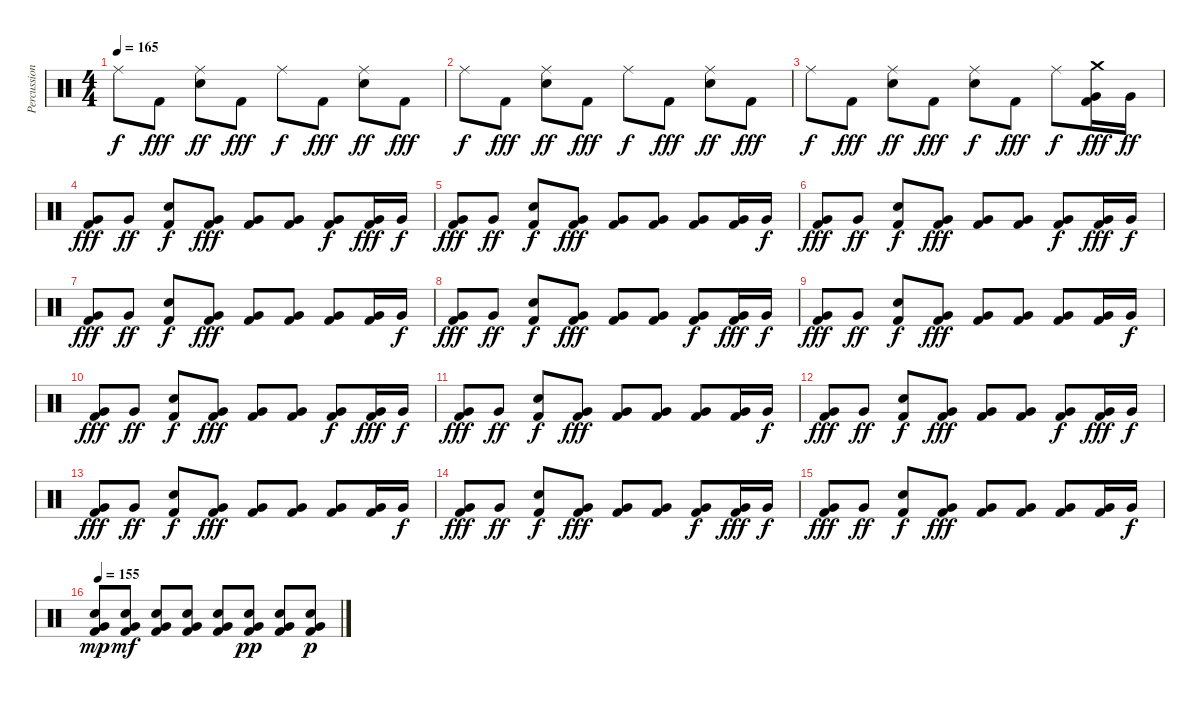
\track ("Percussion" "Percussion") {instrument percussion}
\staff {score}
\articulation defaults
\ts (4 4)
\tempo 165
\clef neutral
\ks c "Ride (middle)".8{dy f} "Kick (hit) 2".8{dy fff}
("Ride (middle)" "Electric Snare (hit)").8{dy ff} "Kick (hit) 2".8{dy fff} "Ride (middle)".8{dy f} "Kick (hit) 2".8{dy fff} ("Ride (middle)" "Electric Snare (hit)").8{dy ff} "Kick (hit) 2".8{dy fff} |
"Ride (middle)".8{dy f} "Kick (hit) 2".8{dy fff} ("Ride (middle)" "Electric Snare (hit)").8{dy ff} "Kick (hit) 2".8{dy fff} "Ride (middle)".8{dy f} "Kick (hit) 2".8{dy fff} ("Ride (middle)" "Electric Snare (hit)").8{dy ff} "Kick (hit) 2".8{dy fff} |
"Ride (middle)".8{dy f} "Kick (hit) 2".8{dy fff} ("Ride (middle)" "Electric Snare (hit)").8{dy ff} "Kick (hit) 2".8{dy fff} ("Ride (middle)" "Electric Snare (hit)").8{dy f} "Kick (hit) 2".8{dy fff} "Ride (middle)".8{dy f} ("Crash medium (hit)" "Very Low Tom (hit)" "Kick (hit) 2").16{dy fff} "Very Low Tom (hit)".16{dy ff} |
("Very Low Tom (hit)" "Kick (hit) 2").8{dy fff} "Very Low Tom (hit)".8{dy ff} ("Electric Snare (hit)" "Kick (hit) 2").8{dy f} ("Very Low Tom (hit)" "Kick (hit) 2").8{dy fff} ("Very Low Tom (hit)" "Kick (hit) 2").8 ("Very Low Tom (hit)" "Kick (hit) 2").8 ("Very Low Tom (hit)" "Kick (hit) 2").8{dy f} ("Very Low Tom (hit)" "Kick (hit) 2").16{dy fff} "Very Low Tom (hit)".16{dy f} |
("Very Low Tom (hit)" "Kick (hit) 2").8{dy fff} "Very Low Tom (hit)".8{dy ff} ("Electric Snare (hit)" "Kick (hit) 2").8{dy f} ("Very Low Tom (hit)" "Kick (hit) 2").8{dy fff} ("Very Low Tom (hit)" "Kick (hit) 2").8 ("Very Low Tom (hit)" "Kick (hit) 2").8 ("Very Low Tom (hit)" "Kick (hit) 2").8 ("Very Low Tom (hit)" "Kick (hit) 2").16 "Very Low Tom (hit)".16{dy f} |
("Very Low Tom (hit)" "Kick (hit) 2").8{dy fff} "Very Low Tom (hit)".8{dy ff} ("Electric Snare (hit)" "Kick (hit) 2").8{dy f} ("Very Low Tom (hit)" "Kick (hit) 2").8{dy fff} ("Very Low Tom (hit)" "Kick (hit) 2").8 ("Very Low Tom (hit)" "Kick (hit) 2").8 ("Very Low Tom (hit)" "Kick (hit) 2").8{dy f} ("Very Low Tom (hit)" "Kick (hit) 2").16{dy fff} "Very Low Tom (hit)".16{dy f} |
("Very Low Tom (hit)" "Kick (hit) 2").8{dy fff} "Very Low Tom (hit)".8{dy ff} ("Electric Snare (hit)" "Kick (hit) 2").8{dy f} ("Very Low Tom (hit)" "Kick (hit) 2").8{dy fff} ("Very Low Tom (hit)" "Kick (hit) 2").8 ("Very Low Tom (hit)" "Kick (hit) 2").8 ("Very Low Tom (hit)" "Kick (hit) 2").8 ("Very Low Tom (hit)" "Kick (hit) 2").16 "Very Low Tom (hit)".16{dy f} |
("Very Low Tom (hit)" "Kick (hit) 2").8{dy fff} "Very Low Tom (hit)".8{dy ff} ("Electric Snare (hit)" "Kick (hit) 2").8{dy f} ("Very Low Tom (hit)" "Kick (hit) 2").8{dy fff} ("Very Low Tom (hit)" "Kick (hit) 2").8 ("Very Low Tom (hit)" "Kick (hit) 2").8 ("Very Low Tom (hit)" "Kick (hit) 2").8{dy f} ("Very Low Tom (hit)" "Kick (hit) 2").16{dy fff} "Very Low Tom (hit)".16{dy f} |
("Very Low Tom (hit)" "Kick (hit) 2").8{dy fff} "Very Low Tom (hit)".8{dy ff} ("Electric Snare (hit)" "Kick (hit) 2").8{dy f} ("Very Low Tom (hit)" "Kick (hit) 2").8{dy fff} ("Very Low Tom (hit)" "Kick (hit) 2").8 ("Very Low Tom (hit)" "Kick (hit) 2").8 ("Very Low Tom (hit)" "Kick (hit) 2").8 ("Very Low Tom (hit)" "Kick (hit) 2").16 "Very Low Tom (hit)".16{dy f} |
("Very Low Tom (hit)" "Kick (hit) 2").8{dy fff} "Very Low Tom (hit)".8{dy ff} ("Electric Snare (hit)" "Kick (hit) 2").8{dy f} ("Very Low Tom (hit)" "Kick (hit) 2").8{dy fff} ("Very Low Tom (hit)" "Kick (hit) 2").8 ("Very Low Tom (hit)" "Kick (hit) 2").8 ("Very Low Tom (hit)" "Kick (hit) 2").8{dy f} ("Very Low Tom (hit)" "Kick (hit) 2").16{dy fff} "Very Low Tom (hit)".16{dy f} |
("Very Low Tom (hit)" "Kick (hit) 2").8{dy fff} "Very Low Tom (hit)".8{dy ff} ("Electric Snare (hit)" "Kick (hit) 2").8{dy f} ("Very Low Tom (hit)" "Kick (hit) 2").8{dy fff} ("Very Low Tom (hit)" "Kick (hit) 2").8 ("Very Low Tom (hit)" "Kick (hit) 2").8 ("Very Low Tom (hit)" "Kick (hit) 2").8 ("Very Low Tom (hit)" "Kick (hit) 2").16 "Very Low Tom (hit)".16{dy f} |
("Very Low Tom (hit)" "Kick (hit) 2").8{dy fff} "Very Low Tom (hit)".8{dy ff} ("Electric Snare (hit)" "Kick (hit) 2").8{dy f} ("Very Low Tom (hit)" "Kick (hit) 2").8{dy fff} ("Very Low Tom (hit)" "Kick (hit) 2").8 ("Very Low Tom (hit)" "Kick (hit) 2").8 ("Very Low Tom (hit)" "Kick (hit) 2").8{dy f} ("Very Low Tom (hit)" "Kick (hit) 2").16{dy fff} "Very Low Tom (hit)".16{dy f} |
("Very Low Tom (hit)" "Kick (hit) 2").8{dy fff} "Very Low Tom (hit)".8{dy ff} ("Electric Snare (hit)" "Kick (hit) 2").8{dy f} ("Very Low Tom (hit)" "Kick (hit) 2").8{dy fff} ("Very Low Tom (hit)" "Kick (hit) 2").8 ("Very Low Tom (hit)" "Kick (hit) 2").8 ("Very Low Tom (hit)" "Kick (hit) 2").8 ("Very Low Tom (hit)" "Kick (hit) 2").16 "Very Low Tom (hit)".16{dy f} |
("Very Low Tom (hit)" "Kick (hit) 2").8{dy fff} "Very Low Tom (hit)".8{dy ff} ("Electric Snare (hit)" "Kick (hit) 2").8{dy f} ("Very Low Tom (hit)" "Kick (hit) 2").8{dy fff} ("Very Low Tom (hit)" "Kick (hit) 2").8 ("Very Low Tom (hit)" "Kick (hit) 2").8 ("Very Low Tom (hit)" "Kick (hit) 2").8{dy f} ("Very Low Tom (hit)" "Kick (hit) 2").16{dy fff} "Very Low Tom (hit)".16{dy f} |
("Very Low Tom (hit)" "Kick (hit) 2").8{dy fff} "Very Low Tom (hit)".8{dy ff} ("Electric Snare (hit)" "Kick (hit) 2").8{dy f} ("Very Low Tom (hit)" "Kick (hit) 2").8{dy fff} ("Very Low Tom (hit)" "Kick (hit) 2").8 ("Very Low Tom (hit)" "Kick (hit) 2").8 ("Very Low Tom (hit)" "Kick (hit) 2").8 ("Very Low Tom (hit)" "Kick (hit) 2").16 "Very Low Tom (hit)".16{dy f} |
\tempo 155
("Electric Snare (hit)" "Very Low Tom (hit)" "Kick (hit) 2").8{dy mp} ("Electric Snare (hit)" "Very Low Tom (hit)" "Kick (hit) 2").8{dy mf} ("Electric Snare (hit)" "Very Low Tom (hit)" "Kick (hit) 2").8 ("Electric Snare (hit)" "Very Low Tom (hit)" "Kick (hit) 2").8 ("Electric Snare (hit)" "Very Low Tom (hit)" "Kick (hit) 2").8 ("Electric Snare (hit)" "Very Low Tom (hit)" "Kick (hit) 2").8{dy pp} ("Electric Snare (hit)" "Very Low Tom (hit)" "Kick (hit) 2").8 ("Electric Snare (hit)" "Very Low Tom (hit)" "Kick (hit) 2").8{dy p}
